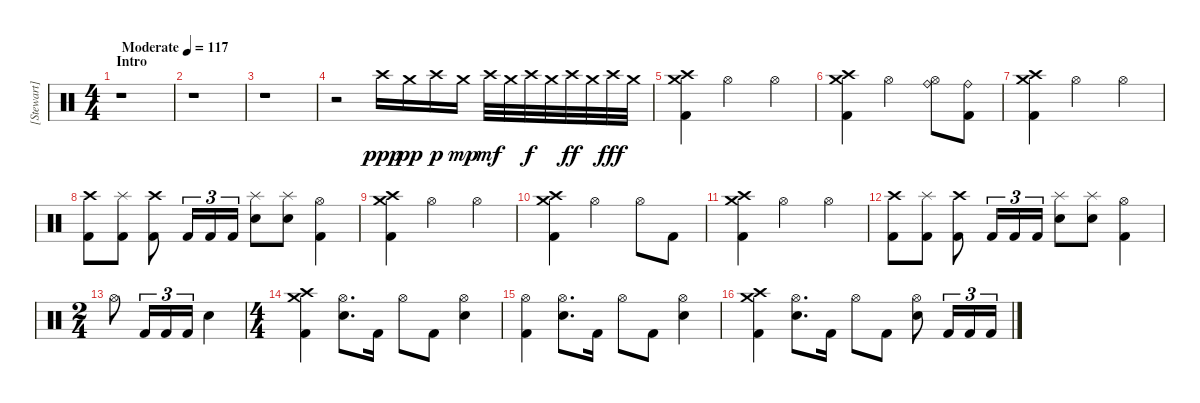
\track ("[Stewart] Drums " "[Stewart] ") {instrument percussion}
\staff {score}
\articulation defaults
\ts (4 4)
\section ("" "Intro ")
\tempo (117 "Moderate")
\clef neutral
\ks c
r.1{dy ppp} |
r.1 |
r.1 |
r.2 "Crash high (hit)".16 "Crash medium (hit)".16{dy pp} "Crash high (hit)".16{dy p} "Crash medium (hit)".16{dy mp} "Crash high (hit)".32{dy mf} "Crash medium (hit)".32 "Crash high (hit)".32{dy f} "Crash medium (hit)".32 "Crash high (hit)".32{dy ff} "Crash medium (hit)".32 "Crash high (hit)".32{dy fff} "Crash medium (hit)".32 |
("Crash medium (hit)" "Crash high (hit)" "Kick (hit) 2").4 "Hi-Hat (open)".2 "Hi-Hat (open)".4 |
("Crash medium (hit)" "Crash high (hit)" "Kick (hit) 2").4 "Hi-Hat (open)".2 ("Hi-Hat (open)" "Ride (bell)").8 ("Ride (bell)" "Kick (hit) 2").8 |
("Crash medium (hit)" "Crash high (hit)" "Kick (hit) 2").4 "Hi-Hat (open)".2 "Hi-Hat (open)".4 |
("Crash high (hit)" "Kick (hit) 2").8 ("Splash (hit)" "Kick (hit) 2").8 ("Crash high (hit)" "Kick (hit) 2").8 "Kick (hit) 2".16{tu (3 2)} "Kick (hit) 2".16{tu (3 2)} "Kick (hit) 2".16{tu (3 2)} ("Splash (hit)" "Electric Snare (hit)").8 ("Splash (hit)" "Electric Snare (hit)").8 ("Hi-Hat (open)" "Kick (hit) 2").4 |
("Crash medium (hit)" "Crash high (hit)" "Kick (hit) 2").4 "Hi-Hat (open)".2 "Hi-Hat (open)".4 |
("Crash medium (hit)" "Crash high (hit)" "Kick (hit) 2").4 "Hi-Hat (open)".2 "Hi-Hat (open)".8 "Kick (hit) 2".8 |
("Crash medium (hit)" "Crash high (hit)" "Kick (hit) 2").4 "Hi-Hat (open)".2 "Hi-Hat (open)".4 |
("Crash high (hit)" "Kick (hit) 2").8 ("Splash (hit)" "Kick (hit) 2").8 ("Crash high (hit)" "Kick (hit) 2").8 "Kick (hit) 2".16{tu (3 2)} "Kick (hit) 2".16{tu (3 2)} "Kick (hit) 2".16{tu (3 2)} ("Splash (hit)" "Electric Snare (hit)").8 ("Splash (hit)" "Electric Snare (hit)").8 ("Hi-Hat (open)" "Kick (hit) 2").4 |
\ts (2 4)
"Hi-Hat (open)".8 "Kick (hit) 2".16{tu (3 2)} "Kick (hit) 2".16{tu (3 2)} "Kick (hit) 2".16{tu (3 2)} "Electric Snare (hit)".4 |
\ts (4 4)
("Crash medium (hit)" "Crash high (hit)" "Kick (hit) 2").4 ("Hi-Hat (open)" "Electric Snare (hit)").8{d} "Kick (hit) 2".16 "Hi-Hat (open)".8 "Kick (hit) 2".8 ("Hi-Hat (open)" "Electric Snare (hit)").4 |
("Hi-Hat (open)" "Kick (hit) 2").4 ("Hi-Hat (open)" "Electric Snare (hit)").8{d} "Kick (hit) 2".16 "Hi-Hat (open)".8 "Kick (hit) 2".8 ("Hi-Hat (open)" "Electric Snare (hit)").4 |
("Crash medium (hit)" "Crash high (hit)" "Kick (hit) 2").4 ("Hi-Hat (open)" "Electric Snare (hit)").8{d} "Kick (hit) 2".16 "Hi-Hat (open)".8 "Kick (hit) 2".8 ("Hi-Hat (open)" "Electric Snare (hit)").8 "Kick (hit) 2".16{tu (3 2)} "Kick (hit) 2".16{tu (3 2)} "Kick (hit) 2".16{tu (3 2)}
